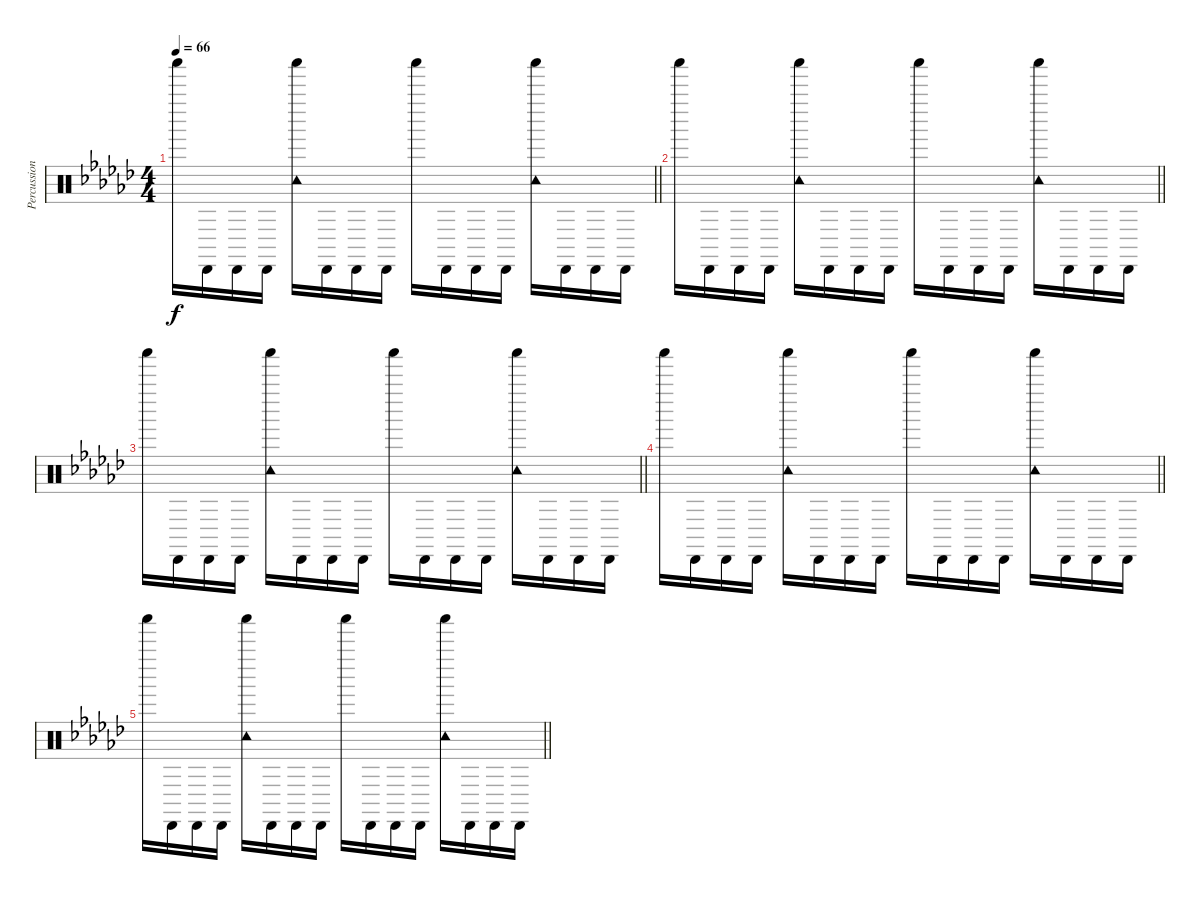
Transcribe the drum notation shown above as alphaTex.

\track ("Percussion" "Percussion") {instrument percussion}
\staff {score}
\articulation defaults
\ts (4 4)
\tempo 66
\clef neutral
\barLineRight lightlight
\ks gb "Shaker (hit)".16{dy f volume 0} "Cabasa (hit)".16 "Cabasa (hit)".16 "Cabasa (hit)".16
("Shaker (hit)" "Tambourine (hit)").16 "Cabasa (hit)".16 "Cabasa (hit)".16 "Cabasa (hit)".16 "Shaker (hit)".16 "Cabasa (hit)".16 "Cabasa (hit)".16 "Cabasa (hit)".16 ("Shaker (hit)" "Tambourine (hit)").16 "Cabasa (hit)".16 "Cabasa (hit)".16 "Cabasa (hit)".16 |
\barLineRight lightlight "Shaker (hit)".16 "Cabasa (hit)".16 "Cabasa (hit)".16 "Cabasa (hit)".16
("Shaker (hit)" "Tambourine (hit)").16 "Cabasa (hit)".16 "Cabasa (hit)".16 "Cabasa (hit)".16 "Shaker (hit)".16 "Cabasa (hit)".16 "Cabasa (hit)".16 "Cabasa (hit)".16 ("Shaker (hit)" "Tambourine (hit)").16 "Cabasa (hit)".16 "Cabasa (hit)".16 "Cabasa (hit)".16 |
\barLineRight lightlight "Shaker (hit)".16 "Cabasa (hit)".16 "Cabasa (hit)".16 "Cabasa (hit)".16
("Shaker (hit)" "Tambourine (hit)").16 "Cabasa (hit)".16 "Cabasa (hit)".16 "Cabasa (hit)".16 "Shaker (hit)".16 "Cabasa (hit)".16 "Cabasa (hit)".16 "Cabasa (hit)".16 ("Shaker (hit)" "Tambourine (hit)").16 "Cabasa (hit)".16 "Cabasa (hit)".16 "Cabasa (hit)".16 |
\barLineRight lightlight "Shaker (hit)".16 "Cabasa (hit)".16 "Cabasa (hit)".16 "Cabasa (hit)".16
("Shaker (hit)" "Tambourine (hit)").16 "Cabasa (hit)".16 "Cabasa (hit)".16 "Cabasa (hit)".16 "Shaker (hit)".16 "Cabasa (hit)".16 "Cabasa (hit)".16 "Cabasa (hit)".16 ("Shaker (hit)" "Tambourine (hit)").16 "Cabasa (hit)".16 "Cabasa (hit)".16 "Cabasa (hit)".16 |
\barLineRight lightlight "Shaker (hit)".16 "Cabasa (hit)".16 "Cabasa (hit)".16 "Cabasa (hit)".16
("Shaker (hit)" "Tambourine (hit)").16 "Cabasa (hit)".16 "Cabasa (hit)".16 "Cabasa (hit)".16 "Shaker (hit)".16 "Cabasa (hit)".16 "Cabasa (hit)".16 "Cabasa (hit)".16 ("Shaker (hit)" "Tambourine (hit)").16 "Cabasa (hit)".16 "Cabasa (hit)".16 "Cabasa (hit)".16
